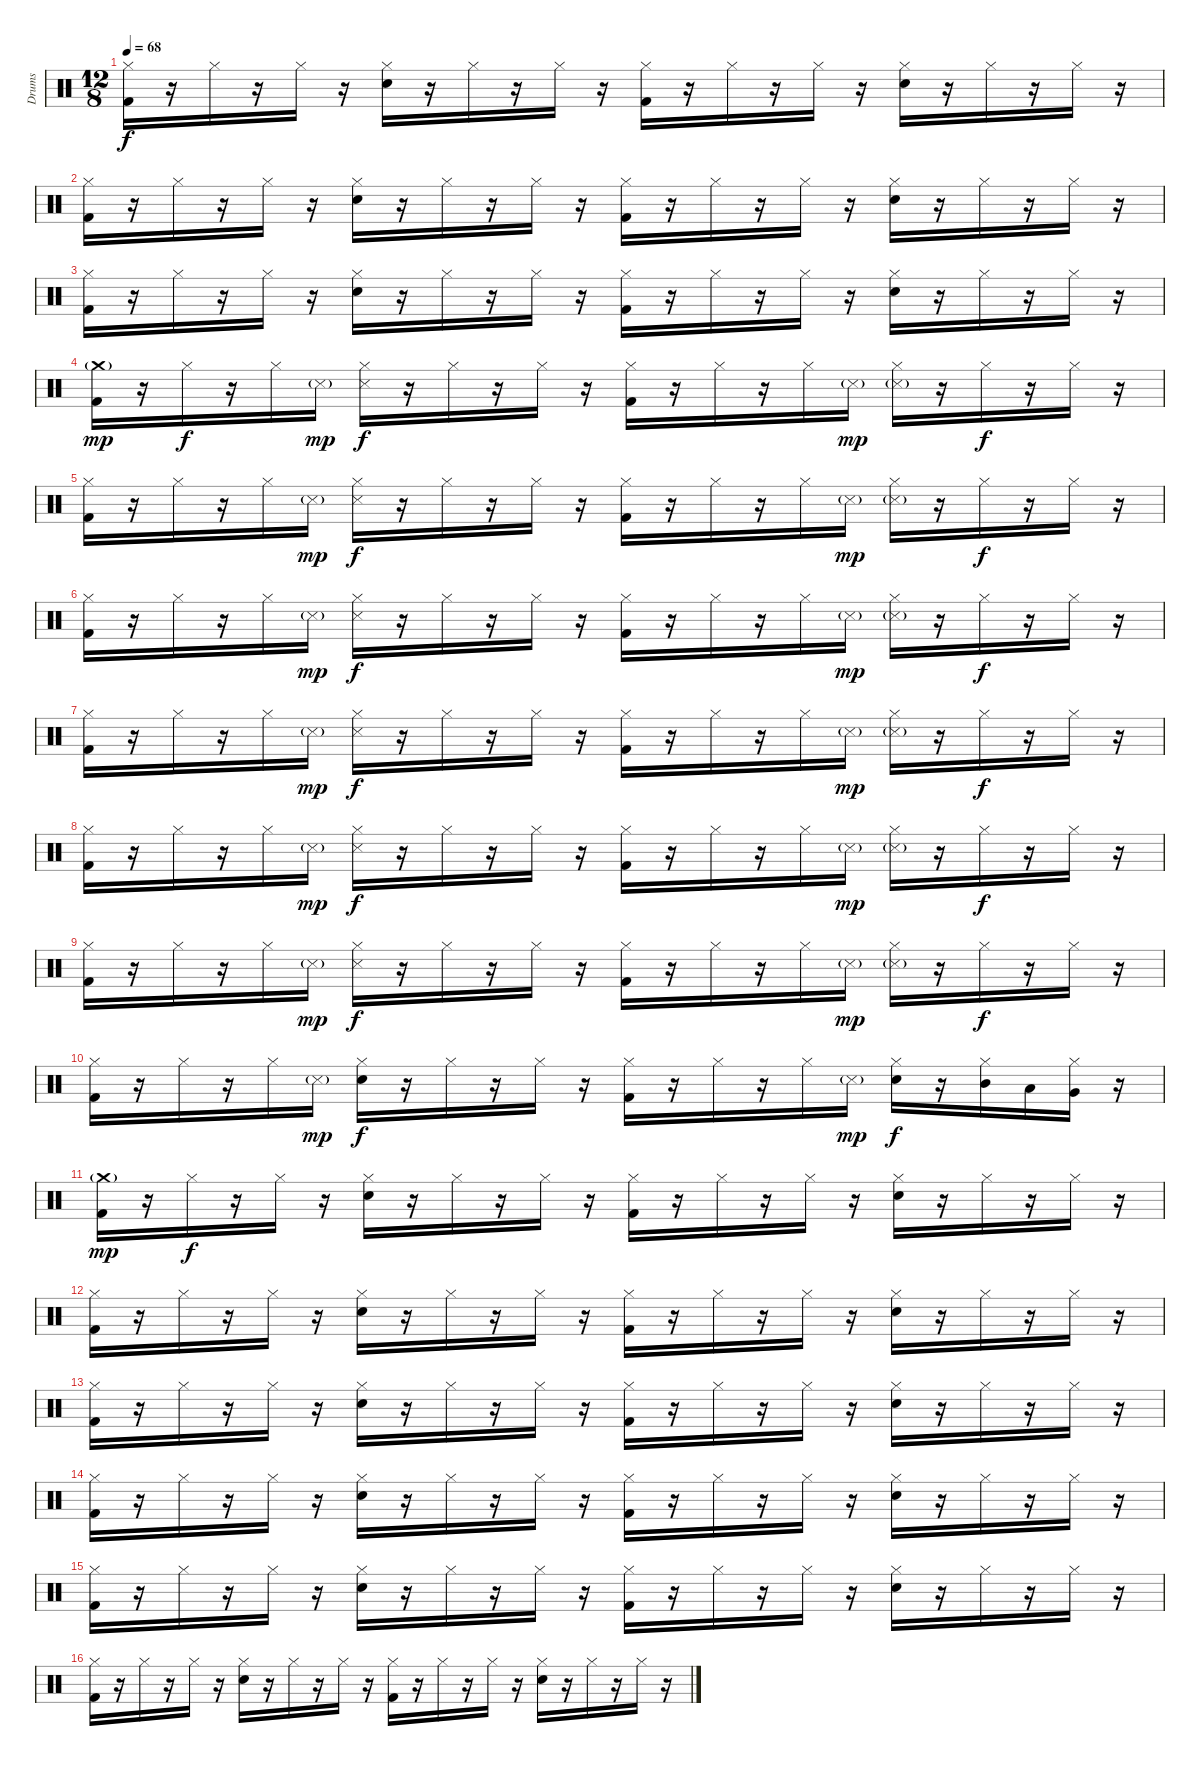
\track ("Drums" "Drums") {instrument percussion}
\staff {score}
\articulation defaults
\ts (12 8)
\tempo 68
\clef neutral
\ks c
("Hi-Hat (closed)" "Kick (hit) 2").16{dy f} r.16 "Hi-Hat (closed)".16 r.16 "Hi-Hat (closed)".16 r.16 ("Hi-Hat (closed)" "Snare (hit) 2").16 r.16 "Hi-Hat (closed)".16 r.16 "Hi-Hat (closed)".16 r.16 ("Hi-Hat (closed)" "Kick (hit) 2").16 r.16 "Hi-Hat (closed)".16 r.16 "Hi-Hat (closed)".16 r.16 ("Hi-Hat (closed)" "Snare (hit) 2").16 r.16 "Hi-Hat (closed)".16 r.16 "Hi-Hat (closed)".16 r.16 |
("Hi-Hat (closed)" "Kick (hit) 2").16 r.16 "Hi-Hat (closed)".16 r.16 "Hi-Hat (closed)".16 r.16 ("Hi-Hat (closed)" "Snare (hit) 2").16 r.16 "Hi-Hat (closed)".16 r.16 "Hi-Hat (closed)".16 r.16 ("Hi-Hat (closed)" "Kick (hit) 2").16 r.16 "Hi-Hat (closed)".16 r.16 "Hi-Hat (closed)".16 r.16 ("Hi-Hat (closed)" "Snare (hit) 2").16 r.16 "Hi-Hat (closed)".16 r.16 "Hi-Hat (closed)".16 r.16 |
("Hi-Hat (closed)" "Kick (hit) 2").16 r.16 "Hi-Hat (closed)".16 r.16 "Hi-Hat (closed)".16 r.16 ("Hi-Hat (closed)" "Snare (hit) 2").16 r.16 "Hi-Hat (closed)".16 r.16 "Hi-Hat (closed)".16 r.16 ("Hi-Hat (closed)" "Kick (hit) 2").16 r.16 "Hi-Hat (closed)".16 r.16 "Hi-Hat (closed)".16 r.16 ("Hi-Hat (closed)" "Snare (hit) 2").16 r.16 "Hi-Hat (closed)".16 r.16 "Hi-Hat (closed)".16 r.16 |
("Crash medium (hit)"{g} "Kick (hit) 2").16{dy mp} r.16 "Hi-Hat (closed)".16{dy f} r.16 "Hi-Hat (closed)".16 "Snare (side stick) 3"{g}.16{dy mp} ("Hi-Hat (closed)" "Snare (side stick) 3").16{dy f} r.16 "Hi-Hat (closed)".16 r.16 "Hi-Hat (closed)".16 r.16 ("Hi-Hat (closed)" "Kick (hit) 2").16 r.16 "Hi-Hat (closed)".16 r.16 "Hi-Hat (closed)".16 "Snare (side stick) 3"{g}.16{dy mp} ("Hi-Hat (closed)" "Snare (side stick) 3"{g}).16 r.16 "Hi-Hat (closed)".16{dy f} r.16 "Hi-Hat (closed)".16 r.16 |
("Hi-Hat (closed)" "Kick (hit) 2").16 r.16 "Hi-Hat (closed)".16 r.16 "Hi-Hat (closed)".16 "Snare (side stick) 3"{g}.16{dy mp} ("Hi-Hat (closed)" "Snare (side stick) 3").16{dy f} r.16 "Hi-Hat (closed)".16 r.16 "Hi-Hat (closed)".16 r.16 ("Hi-Hat (closed)" "Kick (hit) 2").16 r.16 "Hi-Hat (closed)".16 r.16 "Hi-Hat (closed)".16 "Snare (side stick) 3"{g}.16{dy mp} ("Hi-Hat (closed)" "Snare (side stick) 3"{g}).16 r.16 "Hi-Hat (closed)".16{dy f} r.16 "Hi-Hat (closed)".16 r.16 |
("Hi-Hat (closed)" "Kick (hit) 2").16 r.16 "Hi-Hat (closed)".16 r.16 "Hi-Hat (closed)".16 "Snare (side stick) 3"{g}.16{dy mp} ("Hi-Hat (closed)" "Snare (side stick) 3").16{dy f} r.16 "Hi-Hat (closed)".16 r.16 "Hi-Hat (closed)".16 r.16 ("Hi-Hat (closed)" "Kick (hit) 2").16 r.16 "Hi-Hat (closed)".16 r.16 "Hi-Hat (closed)".16 "Snare (side stick) 3"{g}.16{dy mp} ("Hi-Hat (closed)" "Snare (side stick) 3"{g}).16 r.16 "Hi-Hat (closed)".16{dy f} r.16 "Hi-Hat (closed)".16 r.16 |
("Hi-Hat (closed)" "Kick (hit) 2").16 r.16 "Hi-Hat (closed)".16 r.16 "Hi-Hat (closed)".16 "Snare (side stick) 3"{g}.16{dy mp} ("Hi-Hat (closed)" "Snare (side stick) 3").16{dy f} r.16 "Hi-Hat (closed)".16 r.16 "Hi-Hat (closed)".16 r.16 ("Hi-Hat (closed)" "Kick (hit) 2").16 r.16 "Hi-Hat (closed)".16 r.16 "Hi-Hat (closed)".16 "Snare (side stick) 3"{g}.16{dy mp} ("Hi-Hat (closed)" "Snare (side stick) 3"{g}).16 r.16 "Hi-Hat (closed)".16{dy f} r.16 "Hi-Hat (closed)".16 r.16 |
("Hi-Hat (closed)" "Kick (hit) 2").16 r.16 "Hi-Hat (closed)".16 r.16 "Hi-Hat (closed)".16 "Snare (side stick) 3"{g}.16{dy mp} ("Hi-Hat (closed)" "Snare (side stick) 3").16{dy f} r.16 "Hi-Hat (closed)".16 r.16 "Hi-Hat (closed)".16 r.16 ("Hi-Hat (closed)" "Kick (hit) 2").16 r.16 "Hi-Hat (closed)".16 r.16 "Hi-Hat (closed)".16 "Snare (side stick) 3"{g}.16{dy mp} ("Hi-Hat (closed)" "Snare (side stick) 3"{g}).16 r.16 "Hi-Hat (closed)".16{dy f} r.16 "Hi-Hat (closed)".16 r.16 |
("Hi-Hat (closed)" "Kick (hit) 2").16 r.16 "Hi-Hat (closed)".16 r.16 "Hi-Hat (closed)".16 "Snare (side stick) 3"{g}.16{dy mp} ("Hi-Hat (closed)" "Snare (side stick) 3").16{dy f} r.16 "Hi-Hat (closed)".16 r.16 "Hi-Hat (closed)".16 r.16 ("Hi-Hat (closed)" "Kick (hit) 2").16 r.16 "Hi-Hat (closed)".16 r.16 "Hi-Hat (closed)".16 "Snare (side stick) 3"{g}.16{dy mp} ("Hi-Hat (closed)" "Snare (side stick) 3"{g}).16 r.16 "Hi-Hat (closed)".16{dy f} r.16 "Hi-Hat (closed)".16 r.16 |
("Hi-Hat (closed)" "Kick (hit) 2").16 r.16 "Hi-Hat (closed)".16 r.16 "Hi-Hat (closed)".16 "Snare (side stick) 3"{g}.16{dy mp} ("Hi-Hat (closed)" "Snare (hit) 2").16{dy f} r.16 "Hi-Hat (closed)".16 r.16 "Hi-Hat (closed)".16 r.16 ("Hi-Hat (closed)" "Kick (hit) 2").16 r.16 "Hi-Hat (closed)".16 r.16 "Hi-Hat (closed)".16 "Snare (side stick) 3"{g}.16{dy mp} ("Hi-Hat (closed)" "Snare (hit) 2").16{dy f} r.16 ("Hi-Hat (closed)" "Mid Tom (hit)").16 "Low Tom (hit)".16 ("Hi-Hat (closed)" "Very Low Tom (hit)").16 r.16 |
("Crash medium (hit)"{g} "Kick (hit) 2").16{dy mp} r.16 "Hi-Hat (closed)".16{dy f} r.16 "Hi-Hat (closed)".16 r.16 ("Hi-Hat (closed)" "Snare (hit) 2").16 r.16 "Hi-Hat (closed)".16 r.16 "Hi-Hat (closed)".16 r.16 ("Hi-Hat (closed)" "Kick (hit) 2").16 r.16 "Hi-Hat (closed)".16 r.16 "Hi-Hat (closed)".16 r.16 ("Hi-Hat (closed)" "Snare (hit) 2").16 r.16 "Hi-Hat (closed)".16 r.16 "Hi-Hat (closed)".16 r.16 |
("Hi-Hat (closed)" "Kick (hit) 2").16 r.16 "Hi-Hat (closed)".16 r.16 "Hi-Hat (closed)".16 r.16 ("Hi-Hat (closed)" "Snare (hit) 2").16 r.16 "Hi-Hat (closed)".16 r.16 "Hi-Hat (closed)".16 r.16 ("Hi-Hat (closed)" "Kick (hit) 2").16 r.16 "Hi-Hat (closed)".16 r.16 "Hi-Hat (closed)".16 r.16 ("Hi-Hat (closed)" "Snare (hit) 2").16 r.16 "Hi-Hat (closed)".16 r.16 "Hi-Hat (closed)".16 r.16 |
("Hi-Hat (closed)" "Kick (hit) 2").16 r.16 "Hi-Hat (closed)".16 r.16 "Hi-Hat (closed)".16 r.16 ("Hi-Hat (closed)" "Snare (hit) 2").16 r.16 "Hi-Hat (closed)".16 r.16 "Hi-Hat (closed)".16 r.16 ("Hi-Hat (closed)" "Kick (hit) 2").16 r.16 "Hi-Hat (closed)".16 r.16 "Hi-Hat (closed)".16 r.16 ("Hi-Hat (closed)" "Snare (hit) 2").16 r.16 "Hi-Hat (closed)".16 r.16 "Hi-Hat (closed)".16 r.16 |
("Hi-Hat (closed)" "Kick (hit) 2").16 r.16 "Hi-Hat (closed)".16 r.16 "Hi-Hat (closed)".16 r.16 ("Hi-Hat (closed)" "Snare (hit) 2").16 r.16 "Hi-Hat (closed)".16 r.16 "Hi-Hat (closed)".16 r.16 ("Hi-Hat (closed)" "Kick (hit) 2").16 r.16 "Hi-Hat (closed)".16 r.16 "Hi-Hat (closed)".16 r.16 ("Hi-Hat (closed)" "Snare (hit) 2").16 r.16 "Hi-Hat (closed)".16 r.16 "Hi-Hat (closed)".16 r.16 |
("Hi-Hat (closed)" "Kick (hit) 2").16 r.16 "Hi-Hat (closed)".16 r.16 "Hi-Hat (closed)".16 r.16 ("Hi-Hat (closed)" "Snare (hit) 2").16 r.16 "Hi-Hat (closed)".16 r.16 "Hi-Hat (closed)".16 r.16 ("Hi-Hat (closed)" "Kick (hit) 2").16 r.16 "Hi-Hat (closed)".16 r.16 "Hi-Hat (closed)".16 r.16 ("Hi-Hat (closed)" "Snare (hit) 2").16 r.16 "Hi-Hat (closed)".16 r.16 "Hi-Hat (closed)".16 r.16 |
("Hi-Hat (closed)" "Kick (hit) 2").16 r.16 "Hi-Hat (closed)".16 r.16 "Hi-Hat (closed)".16 r.16 ("Hi-Hat (closed)" "Snare (hit) 2").16 r.16 "Hi-Hat (closed)".16 r.16 "Hi-Hat (closed)".16 r.16 ("Hi-Hat (closed)" "Kick (hit) 2").16 r.16 "Hi-Hat (closed)".16 r.16 "Hi-Hat (closed)".16 r.16 ("Hi-Hat (closed)" "Snare (hit) 2").16 r.16 "Hi-Hat (closed)".16 r.16 "Hi-Hat (closed)".16 r.16
